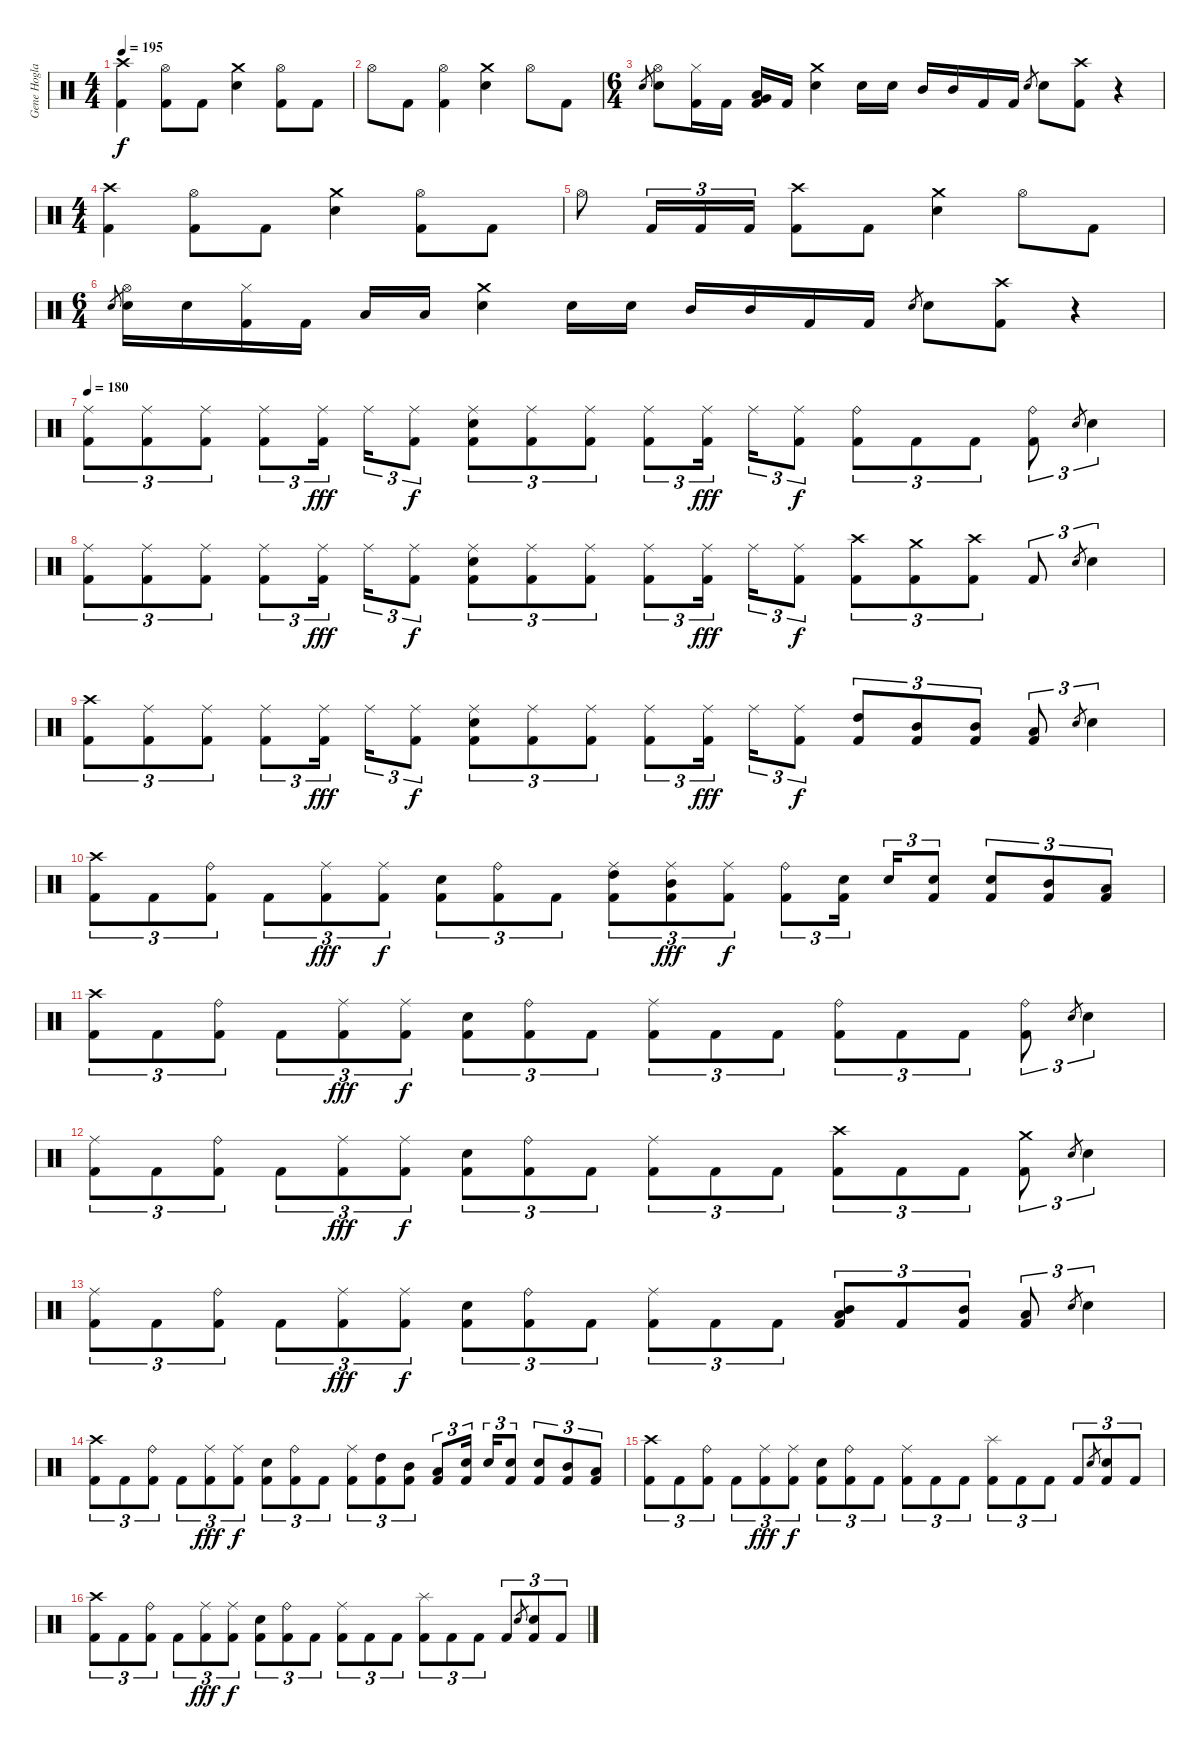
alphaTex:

\track ("Gene Hoglan" "Gene Hogla") {instrument percussion}
\staff {score}
\articulation defaults
\ts (4 4)
\tempo 195
\clef neutral
\ks c
("Crash high (hit)" "Kick (hit) 2").4{dy f} ("Hi-Hat (open)" "Kick (hit) 2").8 "Kick (hit) 2".8 ("Crash medium (hit)" "Electric Snare (hit)").4 ("Hi-Hat (open)" "Kick (hit) 2").8 "Kick (hit) 2".8 |
"Hi-Hat (open)".8 "Kick (hit) 2".8 ("Hi-Hat (open)" "Kick (hit) 2").4 ("Crash medium (hit)" "Electric Snare (hit)").4 "Hi-Hat (open)".8 "Kick (hit) 2".8 |
\ts (6 4)
"Electric Snare (hit)".8{gr} ("Hi-Hat (open)" "Electric Snare (hit)").8 ("Hi-Hat (closed)" "Kick (hit) 2").16 "Kick (hit) 2".16 ("Low Tom (hit)" "Very Low Tom (hit)" "Kick (hit) 2").16 "Kick (hit) 2".16 ("Crash medium (hit)" "Electric Snare (hit)").4 "Electric Snare (hit)".16 "Electric Snare (hit)".16 "Mid Tom (hit)".16 "Mid Tom (hit)".16 "Kick (hit) 2".16 "Kick (hit) 2".16 "Electric Snare (hit)".8{gr} "Electric Snare (hit)".8 ("Crash high (hit)" "Kick (hit) 2").8 r.4 |
\ts (4 4)
("Crash high (hit)" "Kick (hit) 2").4 ("Hi-Hat (open)" "Kick (hit) 2").8 "Kick (hit) 2".8 ("Crash medium (hit)" "Electric Snare (hit)").4 ("Hi-Hat (open)" "Kick (hit) 2").8 "Kick (hit) 2".8 |
"Hi-Hat (open)".8 "Kick (hit) 2".16{tu (3 2)} "Kick (hit) 2".16{tu (3 2)} "Kick (hit) 2".16{tu (3 2)} ("Crash high (hit)" "Kick (hit) 2").8 "Kick (hit) 2".8 ("Crash medium (hit)" "Electric Snare (hit)").4 "Hi-Hat (open)".8 "Kick (hit) 2".8 |
\ts (6 4)
"Electric Snare (hit)".8{gr} ("Hi-Hat (open)" "Electric Snare (hit)").16 "Electric Snare (hit)".16 ("Hi-Hat (closed)" "Kick (hit) 2").16 "Kick (hit) 2".16 "Low Tom (hit)".16 "Low Tom (hit)".16 ("Crash medium (hit)" "Electric Snare (hit)").4 "Electric Snare (hit)".16 "Electric Snare (hit)".16 "Mid Tom (hit)".16 "Mid Tom (hit)".16 "Kick (hit) 2".16 "Kick (hit) 2".16 "Electric Snare (hit)".8{gr} "Electric Snare (hit)".8 ("Crash high (hit)" "Kick (hit) 2").8 r.4 |
\tempo 180
("Ride (middle)" "Kick (hit) 2").8{tu (3 2)} ("Ride (middle)" "Kick (hit) 2").8{tu (3 2)} ("Ride (middle)" "Kick (hit) 2").8{tu (3 2)} ("Ride (middle)" "Kick (hit) 2").8{tu (3 2)} ("Ride (middle)" "Kick (hit) 2").16{tu (3 2) dy fff} "Ride (middle)".16{tu (3 2)} ("Ride (middle)" "Kick (hit) 2").8{tu (3 2) dy f} ("Ride (middle)" "Electric Snare (hit)" "Kick (hit) 2").8{tu (3 2)} ("Ride (middle)" "Kick (hit) 2").8{tu (3 2)} ("Ride (middle)" "Kick (hit) 2").8{tu (3 2)} ("Ride (middle)" "Kick (hit) 2").8{tu (3 2)} ("Ride (middle)" "Kick (hit) 2").16{tu (3 2) dy fff} "Ride (middle)".16{tu (3 2)} ("Ride (middle)" "Kick (hit) 2").8{tu (3 2) dy f} ("Ride (bell)" "Kick (hit) 2").8{tu (3 2)} "Kick (hit) 2".8{tu (3 2)} "Kick (hit) 2".8{tu (3 2)} ("Ride (bell)" "Kick (hit) 2").8{tu (3 2)} "Electric Snare (hit)".8{gr} "Electric Snare (hit)".4{tu (3 2)} |
("Ride (middle)" "Kick (hit) 2").8{tu (3 2)} ("Ride (middle)" "Kick (hit) 2").8{tu (3 2)} ("Ride (middle)" "Kick (hit) 2").8{tu (3 2)} ("Ride (middle)" "Kick (hit) 2").8{tu (3 2)} ("Ride (middle)" "Kick (hit) 2").16{tu (3 2) dy fff} "Ride (middle)".16{tu (3 2)} ("Ride (middle)" "Kick (hit) 2").8{tu (3 2) dy f} ("Ride (middle)" "Electric Snare (hit)" "Kick (hit) 2").8{tu (3 2)} ("Ride (middle)" "Kick (hit) 2").8{tu (3 2)} ("Ride (middle)" "Kick (hit) 2").8{tu (3 2)} ("Ride (middle)" "Kick (hit) 2").8{tu (3 2)} ("Ride (middle)" "Kick (hit) 2").16{tu (3 2) dy fff} "Ride (middle)".16{tu (3 2)} ("Ride (middle)" "Kick (hit) 2").8{tu (3 2) dy f} ("Crash high (hit)" "Kick (hit) 2").8{tu (3 2)} ("Crash medium (hit)" "Kick (hit) 2").8{tu (3 2)} ("Crash high (hit)" "Kick (hit) 2").8{tu (3 2)} "Kick (hit) 2".8{tu (3 2)} "Electric Snare (hit)".8{gr} "Electric Snare (hit)".4{tu (3 2)} |
("Crash high (hit)" "Kick (hit) 2").8{tu (3 2)} ("Ride (middle)" "Kick (hit) 2").8{tu (3 2)} ("Ride (middle)" "Kick (hit) 2").8{tu (3 2)} ("Ride (middle)" "Kick (hit) 2").8{tu (3 2)} ("Ride (middle)" "Kick (hit) 2").16{tu (3 2) dy fff} "Ride (middle)".16{tu (3 2)} ("Ride (middle)" "Kick (hit) 2").8{tu (3 2) dy f} ("Ride (middle)" "Electric Snare (hit)" "Kick (hit) 2").8{tu (3 2)} ("Ride (middle)" "Kick (hit) 2").8{tu (3 2)} ("Ride (middle)" "Kick (hit) 2").8{tu (3 2)} ("Ride (middle)" "Kick (hit) 2").8{tu (3 2)} ("Ride (middle)" "Kick (hit) 2").16{tu (3 2) dy fff} "Ride (middle)".16{tu (3 2)} ("Ride (middle)" "Kick (hit) 2").8{tu (3 2) dy f} ("High Tom (hit)" "Kick (hit) 2").8{tu (3 2)} ("Mid Tom (hit)" "Kick (hit) 2").8{tu (3 2)} ("Mid Tom (hit)" "Kick (hit) 2").8{tu (3 2)} ("Low Tom (hit)" "Kick (hit) 2").8{tu (3 2)} "Electric Snare (hit)".8{gr} "Electric Snare (hit)".4{tu (3 2)} |
("Crash high (hit)" "Kick (hit) 2").8{tu (3 2)} "Kick (hit) 2".8{tu (3 2)} ("Ride (bell)" "Kick (hit) 2").8{tu (3 2)} "Kick (hit) 2".8{tu (3 2)} ("Ride (middle)" "Kick (hit) 2").8{tu (3 2) dy fff} ("Ride (middle)" "Kick (hit) 2").8{tu (3 2) dy f} ("Electric Snare (hit)" "Kick (hit) 2").8{tu (3 2)} ("Ride (bell)" "Kick (hit) 2").8{tu (3 2)} "Kick (hit) 2".8{tu (3 2)} ("Ride (middle)" "High Tom (hit)" "Kick (hit) 2").8{tu (3 2)} ("Ride (middle)" "Mid Tom (hit)" "Kick (hit) 2").8{tu (3 2) dy fff} ("Ride (middle)" "Kick (hit) 2").8{tu (3 2) dy f} ("Ride (bell)" "Kick (hit) 2").8{tu (3 2)} ("Electric Snare (hit)" "Kick (hit) 2").16{tu (3 2)} "Electric Snare (hit)".16{tu (3 2)} ("Electric Snare (hit)" "Kick (hit) 2").8{tu (3 2)} ("Electric Snare (hit)" "Kick (hit) 2").8{tu (3 2)} ("Mid Tom (hit)" "Kick (hit) 2").8{tu (3 2)} ("Low Tom (hit)" "Kick (hit) 2").8{tu (3 2)} |
("Crash high (hit)" "Kick (hit) 2").8{tu (3 2)} "Kick (hit) 2".8{tu (3 2)} ("Ride (bell)" "Kick (hit) 2").8{tu (3 2)} "Kick (hit) 2".8{tu (3 2)} ("Ride (middle)" "Kick (hit) 2").8{tu (3 2) dy fff} ("Ride (middle)" "Kick (hit) 2").8{tu (3 2) dy f} ("Electric Snare (hit)" "Kick (hit) 2").8{tu (3 2)} ("Ride (bell)" "Kick (hit) 2").8{tu (3 2)} "Kick (hit) 2".8{tu (3 2)} ("Ride (middle)" "Kick (hit) 2").8{tu (3 2)} "Kick (hit) 2".8{tu (3 2)} "Kick (hit) 2".8{tu (3 2)} ("Ride (bell)" "Kick (hit) 2").8{tu (3 2)} "Kick (hit) 2".8{tu (3 2)} "Kick (hit) 2".8{tu (3 2)} ("Ride (bell)" "Kick (hit) 2").8{tu (3 2)} "Electric Snare (hit)".8{gr} "Electric Snare (hit)".4{tu (3 2)} |
("Ride (middle)" "Kick (hit) 2").8{tu (3 2)} "Kick (hit) 2".8{tu (3 2)} ("Ride (bell)" "Kick (hit) 2").8{tu (3 2)} "Kick (hit) 2".8{tu (3 2)} ("Ride (middle)" "Kick (hit) 2").8{tu (3 2) dy fff} ("Ride (middle)" "Kick (hit) 2").8{tu (3 2) dy f} ("Electric Snare (hit)" "Kick (hit) 2").8{tu (3 2)} ("Ride (bell)" "Kick (hit) 2").8{tu (3 2)} "Kick (hit) 2".8{tu (3 2)} ("Ride (middle)" "Kick (hit) 2").8{tu (3 2)} "Kick (hit) 2".8{tu (3 2)} "Kick (hit) 2".8{tu (3 2)} ("Crash high (hit)" "Kick (hit) 2").8{tu (3 2)} "Kick (hit) 2".8{tu (3 2)} "Kick (hit) 2".8{tu (3 2)} ("Crash medium (hit)" "Kick (hit) 2").8{tu (3 2)} "Electric Snare (hit)".8{gr} "Electric Snare (hit)".4{tu (3 2)} |
("Ride (middle)" "Kick (hit) 2").8{tu (3 2)} "Kick (hit) 2".8{tu (3 2)} ("Ride (bell)" "Kick (hit) 2").8{tu (3 2)} "Kick (hit) 2".8{tu (3 2)} ("Ride (middle)" "Kick (hit) 2").8{tu (3 2) dy fff} ("Ride (middle)" "Kick (hit) 2").8{tu (3 2) dy f} ("Electric Snare (hit)" "Kick (hit) 2").8{tu (3 2)} ("Ride (bell)" "Kick (hit) 2").8{tu (3 2)} "Kick (hit) 2".8{tu (3 2)} ("Ride (middle)" "Kick (hit) 2").8{tu (3 2)} "Kick (hit) 2".8{tu (3 2)} "Kick (hit) 2".8{tu (3 2)} ("Mid Tom (hit)" "Low Tom (hit)" "Kick (hit) 2").8{tu (3 2)} "Kick (hit) 2".8{tu (3 2)} ("Mid Tom (hit)" "Kick (hit) 2").8{tu (3 2)} ("Low Tom (hit)" "Kick (hit) 2").8{tu (3 2)} "Electric Snare (hit)".8{gr} "Electric Snare (hit)".4{tu (3 2)} |
("Crash high (hit)" "Kick (hit) 2").8{tu (3 2)} "Kick (hit) 2".8{tu (3 2)} ("Ride (bell)" "Kick (hit) 2").8{tu (3 2)} "Kick (hit) 2".8{tu (3 2)} ("Ride (middle)" "Kick (hit) 2").8{tu (3 2) dy fff} ("Ride (middle)" "Kick (hit) 2").8{tu (3 2) dy f} ("Electric Snare (hit)" "Kick (hit) 2").8{tu (3 2)} ("Ride (bell)" "Kick (hit) 2").8{tu (3 2)} "Kick (hit) 2".8{tu (3 2)} ("Ride (middle)" "Kick (hit) 2").8{tu (3 2)} ("High Tom (hit)" "Kick (hit) 2").8{tu (3 2)} ("Mid Tom (hit)" "Kick (hit) 2").8{tu (3 2)} ("Low Tom (hit)" "Kick (hit) 2").8{tu (3 2)} ("Electric Snare (hit)" "Kick (hit) 2").16{tu (3 2)} "Electric Snare (hit)".16{tu (3 2)} ("Electric Snare (hit)" "Kick (hit) 2").8{tu (3 2)} ("Electric Snare (hit)" "Kick (hit) 2").8{tu (3 2)} ("Mid Tom (hit)" "Kick (hit) 2").8{tu (3 2)} ("Low Tom (hit)" "Kick (hit) 2").8{tu (3 2)} |
("Crash high (hit)" "Kick (hit) 2").8{tu (3 2)} "Kick (hit) 2".8{tu (3 2)} ("Ride (bell)" "Kick (hit) 2").8{tu (3 2)} "Kick (hit) 2".8{tu (3 2)} ("Ride (middle)" "Kick (hit) 2").8{tu (3 2) dy fff} ("Ride (middle)" "Kick (hit) 2").8{tu (3 2) dy f} ("Electric Snare (hit)" "Kick (hit) 2").8{tu (3 2)} ("Ride (bell)" "Kick (hit) 2").8{tu (3 2)} "Kick (hit) 2".8{tu (3 2)} ("Ride (middle)" "Kick (hit) 2").8{tu (3 2)} "Kick (hit) 2".8{tu (3 2)} "Kick (hit) 2".8{tu (3 2)} ("Splash (hit)" "Kick (hit) 2").8{tu (3 2)} "Kick (hit) 2".8{tu (3 2)} "Kick (hit) 2".8{tu (3 2)} "Kick (hit) 2".8{tu (3 2)} "Electric Snare (hit)".8{gr} ("Electric Snare (hit)" "Kick (hit) 2").8{tu (3 2)} "Kick (hit) 2".8{tu (3 2)} |
("Crash high (hit)" "Kick (hit) 2").8{tu (3 2)} "Kick (hit) 2".8{tu (3 2)} ("Ride (bell)" "Kick (hit) 2").8{tu (3 2)} "Kick (hit) 2".8{tu (3 2)} ("Ride (middle)" "Kick (hit) 2").8{tu (3 2) dy fff} ("Ride (middle)" "Kick (hit) 2").8{tu (3 2) dy f} ("Electric Snare (hit)" "Kick (hit) 2").8{tu (3 2)} ("Ride (bell)" "Kick (hit) 2").8{tu (3 2)} "Kick (hit) 2".8{tu (3 2)} ("Ride (middle)" "Kick (hit) 2").8{tu (3 2)} "Kick (hit) 2".8{tu (3 2)} "Kick (hit) 2".8{tu (3 2)} ("Splash (hit)" "Kick (hit) 2").8{tu (3 2)} "Kick (hit) 2".8{tu (3 2)} "Kick (hit) 2".8{tu (3 2)} "Kick (hit) 2".8{tu (3 2)} "Electric Snare (hit)".8{gr} ("Electric Snare (hit)" "Kick (hit) 2").8{tu (3 2)} "Kick (hit) 2".8{tu (3 2)}
